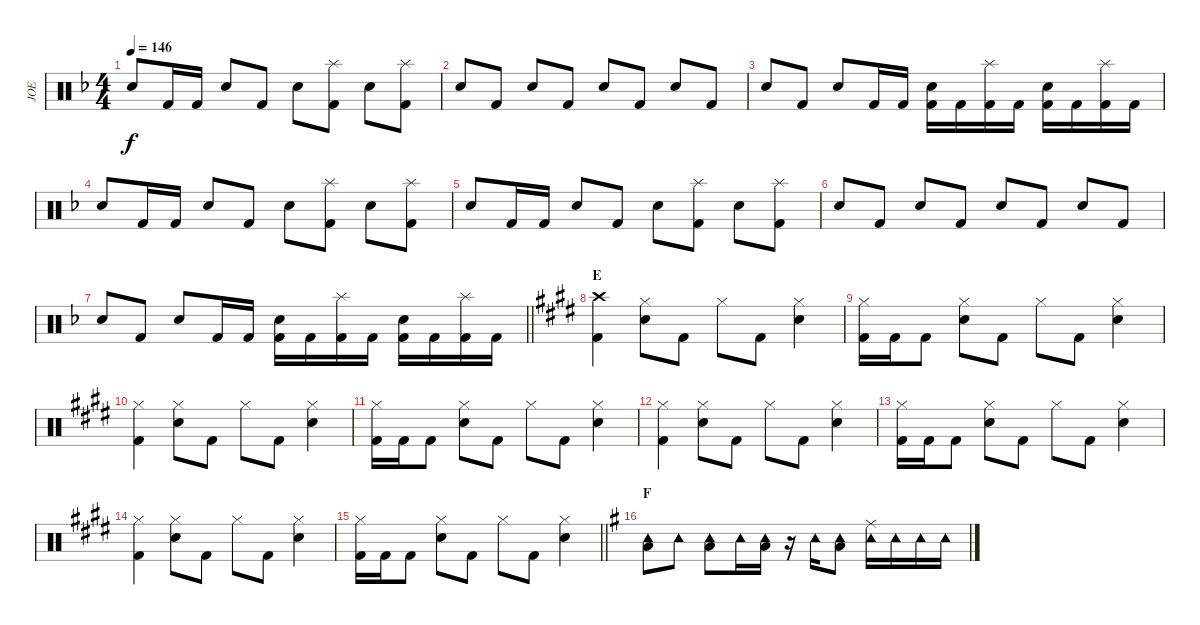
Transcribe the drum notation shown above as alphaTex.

\track ("JOE" "JOE") {instrument percussion}
\staff {score}
\articulation defaults
\ts (4 4)
\tempo 146
\clef neutral
\ks dminor "Snare (hit) 2".8{dy f} "Kick (hit) 2".16 "Kick (hit) 2".16 "Snare (hit) 2".8 "Kick (hit) 2".8 "Snare (hit) 2".8
("Splash (hit)" "Kick (hit) 2").8 "Snare (hit) 2".8 ("Splash (hit)" "Kick (hit) 2").8 |
"Snare (hit) 2".8 "Kick (hit) 2".8 "Snare (hit) 2".8 "Kick (hit) 2".8 "Snare (hit) 2".8 "Kick (hit) 2".8 "Snare (hit) 2".8 "Kick (hit) 2".8 |
"Snare (hit) 2".8 "Kick (hit) 2".8 "Snare (hit) 2".8 "Kick (hit) 2".16 "Kick (hit) 2".16 ("Snare (hit) 2" "Kick (hit) 2").16 "Kick (hit) 2".16 ("Splash (hit)" "Kick (hit) 2").16 "Kick (hit) 2".16 ("Snare (hit) 2" "Kick (hit) 2").16 "Kick (hit) 2".16 ("Splash (hit)" "Kick (hit) 2").16 "Kick (hit) 2".16 |
"Snare (hit) 2".8 "Kick (hit) 2".16 "Kick (hit) 2".16 "Snare (hit) 2".8 "Kick (hit) 2".8 "Snare (hit) 2".8 ("Splash (hit)" "Kick (hit) 2").8 "Snare (hit) 2".8 ("Splash (hit)" "Kick (hit) 2").8 |
"Snare (hit) 2".8 "Kick (hit) 2".16 "Kick (hit) 2".16 "Snare (hit) 2".8 "Kick (hit) 2".8 "Snare (hit) 2".8 ("Splash (hit)" "Kick (hit) 2").8 "Snare (hit) 2".8 ("Splash (hit)" "Kick (hit) 2").8 |
"Snare (hit) 2".8 "Kick (hit) 2".8 "Snare (hit) 2".8 "Kick (hit) 2".8 "Snare (hit) 2".8 "Kick (hit) 2".8 "Snare (hit) 2".8 "Kick (hit) 2".8 |
\barLineRight lightlight "Snare (hit) 2".8 "Kick (hit) 2".8 "Snare (hit) 2".8 "Kick (hit) 2".16 "Kick (hit) 2".16
("Snare (hit) 2" "Kick (hit) 2").16 "Kick (hit) 2".16 ("Splash (hit)" "Kick (hit) 2").16 "Kick (hit) 2".16 ("Snare (hit) 2" "Kick (hit) 2").16 "Kick (hit) 2".16 ("Splash (hit)" "Kick (hit) 2").16 "Kick (hit) 2".16 |
\section ("" "E")
\ks e
("Crash high (hit)" "Kick (hit) 2").4 ("Hi-Hat (closed)" "Snare (hit) 2").8 "Kick (hit) 2".8 "Hi-Hat (closed)".8 "Kick (hit) 2".8 ("Hi-Hat (closed)" "Snare (hit) 2").4 |
("Hi-Hat (closed)" "Kick (hit) 2").16 "Kick (hit) 2".16 "Kick (hit) 2".8 ("Hi-Hat (closed)" "Snare (hit) 2").8 "Kick (hit) 2".8 "Hi-Hat (closed)".8 "Kick (hit) 2".8 ("Hi-Hat (closed)" "Snare (hit) 2").4 |
("Hi-Hat (closed)" "Kick (hit) 2").4 ("Hi-Hat (closed)" "Snare (hit) 2").8 "Kick (hit) 2".8 "Hi-Hat (closed)".8 "Kick (hit) 2".8 ("Hi-Hat (closed)" "Snare (hit) 2").4 |
("Hi-Hat (closed)" "Kick (hit) 2").16 "Kick (hit) 2".16 "Kick (hit) 2".8 ("Hi-Hat (closed)" "Snare (hit) 2").8 "Kick (hit) 2".8 "Hi-Hat (closed)".8 "Kick (hit) 2".8 ("Hi-Hat (closed)" "Snare (hit) 2").4 |
("Hi-Hat (closed)" "Kick (hit) 2").4 ("Hi-Hat (closed)" "Snare (hit) 2").8 "Kick (hit) 2".8 "Hi-Hat (closed)".8 "Kick (hit) 2".8 ("Hi-Hat (closed)" "Snare (hit) 2").4 |
("Hi-Hat (closed)" "Kick (hit) 2").16 "Kick (hit) 2".16 "Kick (hit) 2".8 ("Hi-Hat (closed)" "Snare (hit) 2").8 "Kick (hit) 2".8 "Hi-Hat (closed)".8 "Kick (hit) 2".8 ("Hi-Hat (closed)" "Snare (hit) 2").4 |
("Hi-Hat (closed)" "Kick (hit) 2").4 ("Hi-Hat (closed)" "Snare (hit) 2").8 "Kick (hit) 2".8 "Hi-Hat (closed)".8 "Kick (hit) 2".8 ("Hi-Hat (closed)" "Snare (hit) 2").4 |
\barLineRight lightlight
("Hi-Hat (closed)" "Kick (hit) 2").16 "Kick (hit) 2".16 "Kick (hit) 2".8 ("Hi-Hat (closed)" "Snare (hit) 2").8 "Kick (hit) 2".8 "Hi-Hat (closed)".8 "Kick (hit) 2".8 ("Hi-Hat (closed)" "Snare (hit) 2").4 |
\section ("" "F")
\ks eminor
("Tambourine (hit)" "Low Floor Tom (hit)").8 "Tambourine (hit)".8 ("Tambourine (hit)" "Low Floor Tom (hit)").8 "Tambourine (hit)".16 ("Tambourine (hit)" "Low Tom (hit)").16 r.16 "Tambourine (hit)".16 ("Tambourine (hit)" "Low Floor Tom (hit)").8 ("Ride (middle)" "Tambourine (hit)").16 "Tambourine (hit)".16 "Tambourine (hit)".16 "Tambourine (hit)".16
